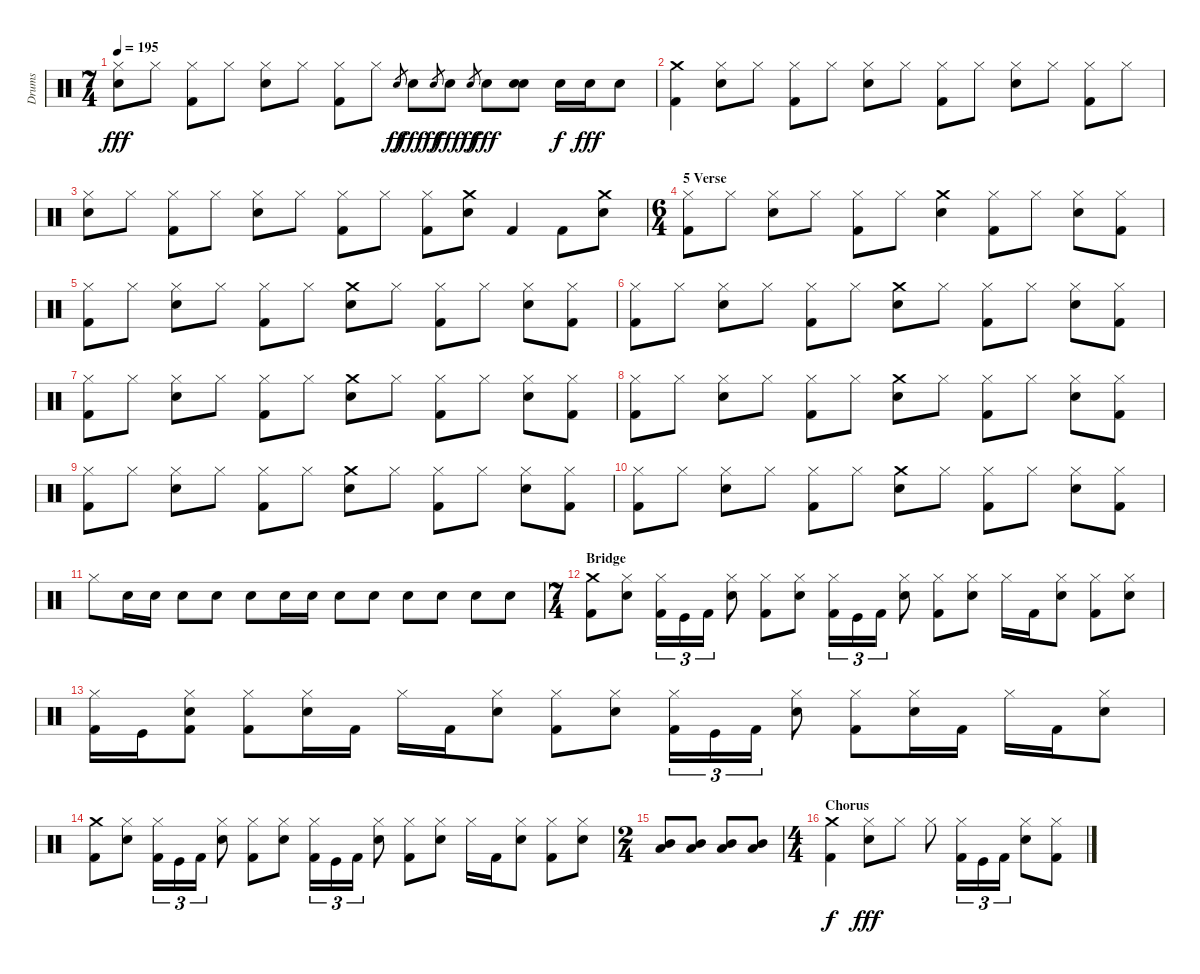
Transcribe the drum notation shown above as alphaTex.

\track ("Drums" "Drums") {instrument percussion}
\staff {score}
\articulation defaults
\ts (7 4)
\tempo 195
\clef neutral
\ks c
("Hi-Hat (closed)" "Snare (hit) 2").8{dy fff} "Hi-Hat (closed)".8 ("Hi-Hat (closed)" "Kick (hit) 2").8 "Hi-Hat (closed)".8 ("Hi-Hat (closed)" "Snare (hit) 2").8 "Hi-Hat (closed)".8 ("Hi-Hat (closed)" "Kick (hit) 2").8 "Hi-Hat (closed)".8 "Snare (hit)".8{gr dy ff} "Snare (hit) 2".8{dy fff} "Snare (hit)".8{gr dy ff} "Snare (hit) 2".8{dy fff} "Snare (hit)".8{gr dy ff} "Snare (hit) 2".8{dy fff} ("Snare (hit) 2" "Snare (hit) 2").8 "Snare (hit) 2".16{dy f} "Snare (hit) 2".16{dy fff} "Snare (hit) 2".8 |
("Kick (hit) 2" "Crash medium (hit)").4 ("Hi-Hat (closed)" "Snare (hit) 2").8 "Hi-Hat (closed)".8 ("Kick (hit) 2" "Hi-Hat (closed)").8 "Hi-Hat (closed)".8 ("Snare (hit) 2" "Hi-Hat (closed)").8 "Hi-Hat (closed)".8 ("Kick (hit) 2" "Hi-Hat (closed)").8 "Hi-Hat (closed)".8 ("Snare (hit) 2" "Hi-Hat (closed)").8 "Hi-Hat (closed)".8 ("Kick (hit) 2" "Hi-Hat (closed)").8 "Hi-Hat (closed)".8 |
("Hi-Hat (closed)" "Snare (hit) 2").8 "Hi-Hat (closed)".8 ("Hi-Hat (closed)" "Kick (hit) 2").8 "Hi-Hat (closed)".8 ("Snare (hit) 2" "Hi-Hat (closed)").8 "Hi-Hat (closed)".8 ("Hi-Hat (closed)" "Kick (hit) 2").8 "Hi-Hat (closed)".8 ("Hi-Hat (closed)" "Kick (hit) 2").8 ("Crash medium (hit)" "Snare (hit) 2").8 "Kick (hit) 2".4 "Kick (hit) 2".8 ("Snare (hit) 2" "Crash medium (hit)").8 |
\ts (6 4)
\section ("" "5 Verse")
("Hi-Hat (closed)" "Kick (hit) 2").8 "Hi-Hat (closed)".8 ("Snare (hit) 2" "Hi-Hat (closed)").8 "Hi-Hat (closed)".8 ("Hi-Hat (closed)" "Kick (hit) 2").8 "Hi-Hat (closed)".8 ("Snare (hit) 2" "Crash medium (hit)").4 ("Hi-Hat (closed)" "Kick (hit) 2").8 "Hi-Hat (closed)".8 ("Snare (hit) 2" "Hi-Hat (closed)").8 ("Kick (hit) 2" "Hi-Hat (closed)").8 |
("Hi-Hat (closed)" "Kick (hit) 2").8 "Hi-Hat (closed)".8 ("Snare (hit) 2" "Hi-Hat (closed)").8 "Hi-Hat (closed)".8 ("Hi-Hat (closed)" "Kick (hit) 2").8 "Hi-Hat (closed)".8 ("Crash medium (hit)" "Snare (hit) 2").8 "Hi-Hat (closed)".8 ("Hi-Hat (closed)" "Kick (hit) 2").8 "Hi-Hat (closed)".8 ("Snare (hit) 2" "Hi-Hat (closed)").8 ("Kick (hit) 2" "Hi-Hat (closed)").8 |
("Hi-Hat (closed)" "Kick (hit) 2").8 "Hi-Hat (closed)".8 ("Snare (hit) 2" "Hi-Hat (closed)").8 "Hi-Hat (closed)".8 ("Hi-Hat (closed)" "Kick (hit) 2").8 "Hi-Hat (closed)".8 ("Crash medium (hit)" "Snare (hit) 2").8 "Hi-Hat (closed)".8 ("Hi-Hat (closed)" "Kick (hit) 2").8 "Hi-Hat (closed)".8 ("Snare (hit) 2" "Hi-Hat (closed)").8 ("Kick (hit) 2" "Hi-Hat (closed)").8 |
("Hi-Hat (closed)" "Kick (hit) 2").8 "Hi-Hat (closed)".8 ("Snare (hit) 2" "Hi-Hat (closed)").8 "Hi-Hat (closed)".8 ("Hi-Hat (closed)" "Kick (hit) 2").8 "Hi-Hat (closed)".8 ("Crash medium (hit)" "Snare (hit) 2").8 "Hi-Hat (closed)".8 ("Hi-Hat (closed)" "Kick (hit) 2").8 "Hi-Hat (closed)".8 ("Snare (hit) 2" "Hi-Hat (closed)").8 ("Kick (hit) 2" "Hi-Hat (closed)").8 |
("Hi-Hat (closed)" "Kick (hit) 2").8 "Hi-Hat (closed)".8 ("Snare (hit) 2" "Hi-Hat (closed)").8 "Hi-Hat (closed)".8 ("Hi-Hat (closed)" "Kick (hit) 2").8 "Hi-Hat (closed)".8 ("Crash medium (hit)" "Snare (hit) 2").8 "Hi-Hat (closed)".8 ("Hi-Hat (closed)" "Kick (hit) 2").8 "Hi-Hat (closed)".8 ("Snare (hit) 2" "Hi-Hat (closed)").8 ("Kick (hit) 2" "Hi-Hat (closed)").8 |
("Hi-Hat (closed)" "Kick (hit) 2").8 "Hi-Hat (closed)".8 ("Snare (hit) 2" "Hi-Hat (closed)").8 "Hi-Hat (closed)".8 ("Hi-Hat (closed)" "Kick (hit) 2").8 "Hi-Hat (closed)".8 ("Crash medium (hit)" "Snare (hit) 2").8 "Hi-Hat (closed)".8 ("Hi-Hat (closed)" "Kick (hit) 2").8 "Hi-Hat (closed)".8 ("Snare (hit) 2" "Hi-Hat (closed)").8 ("Kick (hit) 2" "Hi-Hat (closed)").8 |
("Hi-Hat (closed)" "Kick (hit) 2").8 "Hi-Hat (closed)".8 ("Snare (hit) 2" "Hi-Hat (closed)").8 "Hi-Hat (closed)".8 ("Hi-Hat (closed)" "Kick (hit) 2").8 "Hi-Hat (closed)".8 ("Crash medium (hit)" "Snare (hit) 2").8 "Hi-Hat (closed)".8 ("Hi-Hat (closed)" "Kick (hit) 2").8 "Hi-Hat (closed)".8 ("Snare (hit) 2" "Hi-Hat (closed)").8 ("Kick (hit) 2" "Hi-Hat (closed)").8 |
"Hi-Hat (closed)".8 "Snare (hit) 2".16 "Snare (hit) 2".16 "Snare (hit) 2".8 "Snare (hit) 2".8 "Snare (hit) 2".8 "Snare (hit) 2".16 "Snare (hit) 2".16 "Snare (hit) 2".8 "Snare (hit) 2".8 "Snare (hit) 2".8 "Snare (hit) 2".8 "Snare (hit) 2".8 "Snare (hit) 2".8 |
\ts (7 4)
\section ("" "Bridge")
("Crash medium (hit)" "Kick (hit) 2").8 ("Snare (hit) 2" "Hi-Hat (closed)").8 ("Hi-Hat (closed)" "Kick (hit) 2").16{tu (3 2)} "Kick (hit)".16{tu (3 2)} "Kick (hit) 2".16{tu (3 2)} ("Snare (hit) 2" "Hi-Hat (closed)").8 ("Hi-Hat (closed)" "Kick (hit) 2").8 ("Snare (hit) 2" "Hi-Hat (closed)").8 ("Hi-Hat (closed)" "Kick (hit) 2").16{tu (3 2)} "Kick (hit)".16{tu (3 2)} "Kick (hit) 2".16{tu (3 2)} ("Snare (hit) 2" "Hi-Hat (closed)").8 ("Hi-Hat (closed)" "Kick (hit) 2").8 ("Snare (hit) 2" "Hi-Hat (closed)").8 "Hi-Hat (closed)".16 "Kick (hit) 2".16 ("Snare (hit) 2" "Hi-Hat (closed)").8 ("Hi-Hat (closed)" "Kick (hit) 2").8 ("Snare (hit) 2" "Hi-Hat (closed)").8 |
("Hi-Hat (closed)" "Kick (hit) 2").16 "Kick (hit)".16 ("Snare (hit) 2" "Hi-Hat (closed)" "Kick (hit) 2").8 ("Hi-Hat (closed)" "Kick (hit) 2").8 ("Snare (hit) 2" "Hi-Hat (closed)").16 "Kick (hit) 2".16 "Hi-Hat (closed)".16 "Kick (hit) 2".16 ("Snare (hit) 2" "Hi-Hat (closed)").8 ("Hi-Hat (closed)" "Kick (hit) 2").8 ("Snare (hit) 2" "Hi-Hat (closed)").8 ("Hi-Hat (closed)" "Kick (hit) 2").16{tu (3 2)} "Kick (hit)".16{tu (3 2)} "Kick (hit) 2".16{tu (3 2)} ("Snare (hit) 2" "Hi-Hat (closed)").8 ("Hi-Hat (closed)" "Kick (hit) 2").8 ("Snare (hit) 2" "Hi-Hat (closed)").16 "Kick (hit) 2".16 "Hi-Hat (closed)".16 "Kick (hit) 2".16 ("Snare (hit) 2" "Hi-Hat (closed)").8 |
("Crash medium (hit)" "Kick (hit) 2").8 ("Snare (hit) 2" "Hi-Hat (closed)").8 ("Hi-Hat (closed)" "Kick (hit) 2").16{tu (3 2)} "Kick (hit)".16{tu (3 2)} "Kick (hit) 2".16{tu (3 2)} ("Snare (hit) 2" "Hi-Hat (closed)").8 ("Hi-Hat (closed)" "Kick (hit) 2").8 ("Snare (hit) 2" "Hi-Hat (closed)").8 ("Hi-Hat (closed)" "Kick (hit) 2").16{tu (3 2)} "Kick (hit)".16{tu (3 2)} "Kick (hit) 2".16{tu (3 2)} ("Snare (hit) 2" "Hi-Hat (closed)").8 ("Hi-Hat (closed)" "Kick (hit) 2").8 ("Snare (hit) 2" "Hi-Hat (closed)").8 "Hi-Hat (closed)".16 "Kick (hit) 2".16 ("Snare (hit) 2" "Hi-Hat (closed)").8 ("Hi-Hat (closed)" "Kick (hit) 2").8 ("Snare (hit) 2" "Hi-Hat (closed)").8 |
\ts (2 4)
("Mid Tom (hit)" "Low Tom (hit)").8 ("Low Tom (hit)" "Mid Tom (hit)").8 ("Mid Tom (hit)" "Low Tom (hit)").8 ("Low Tom (hit)" "Mid Tom (hit)").8 |
\ts (4 4)
\section ("" "Chorus")
("Kick (hit) 2" "Crash medium (hit)").4{dy f} ("Hi-Hat (closed)" "Snare (hit) 2").8{dy fff} "Hi-Hat (closed)".8 "Hi-Hat (closed)".8 ("Hi-Hat (closed)" "Kick (hit) 2").16{tu (3 2)} "Kick (hit)".16{tu (3 2)} "Kick (hit) 2".16{tu (3 2)} ("Snare (hit) 2" "Hi-Hat (closed)").8 ("Hi-Hat (closed)" "Kick (hit) 2").8
